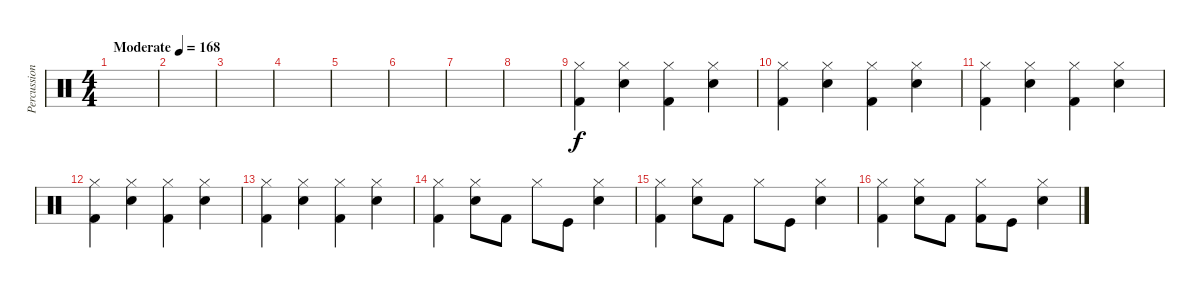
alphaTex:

\track ("Percussion" "Percussion") {instrument percussion}
\staff {score}
\articulation defaults
\ts (4 4)
\tempo (168 "Moderate")
\clef neutral
\ks c
|
|
|
|
|
|
|
|
("Hi-Hat (closed)" "Kick (hit) 2").4 ("Electric Snare (hit)" "Hi-Hat (closed)").4 ("Kick (hit) 2" "Hi-Hat (closed)").4 ("Snare (hit) 2" "Hi-Hat (closed)").4 |
("Hi-Hat (closed)" "Kick (hit) 2").4 ("Electric Snare (hit)" "Hi-Hat (closed)").4 ("Kick (hit) 2" "Hi-Hat (closed)").4 ("Snare (hit) 2" "Hi-Hat (closed)").4 |
("Hi-Hat (closed)" "Kick (hit) 2").4 ("Electric Snare (hit)" "Hi-Hat (closed)").4 ("Kick (hit) 2" "Hi-Hat (closed)").4 ("Snare (hit) 2" "Hi-Hat (closed)").4 |
("Hi-Hat (closed)" "Kick (hit) 2").4 ("Electric Snare (hit)" "Hi-Hat (closed)").4 ("Kick (hit) 2" "Hi-Hat (closed)").4 ("Snare (hit) 2" "Hi-Hat (closed)").4 |
("Hi-Hat (closed)" "Kick (hit) 2").4 ("Electric Snare (hit)" "Hi-Hat (closed)").4 ("Kick (hit) 2" "Hi-Hat (closed)").4 ("Snare (hit) 2" "Hi-Hat (closed)").4 |
("Hi-Hat (closed)" "Kick (hit) 2").4 ("Electric Snare (hit)" "Hi-Hat (closed)").8 "Kick (hit) 2".8 "Hi-Hat (closed)".8 "Kick (hit)".8 ("Electric Snare (hit)" "Hi-Hat (closed)").4 |
("Hi-Hat (closed)" "Kick (hit) 2").4 ("Electric Snare (hit)" "Hi-Hat (closed)").8 "Kick (hit) 2".8 "Hi-Hat (closed)".8 "Kick (hit)".8 ("Electric Snare (hit)" "Hi-Hat (closed)").4 |
("Hi-Hat (closed)" "Kick (hit) 2").4 ("Electric Snare (hit)" "Hi-Hat (closed)").8 "Kick (hit) 2".8 ("Kick (hit) 2" "Hi-Hat (closed)").8 "Kick (hit)".8 ("Electric Snare (hit)" "Hi-Hat (closed)").4
